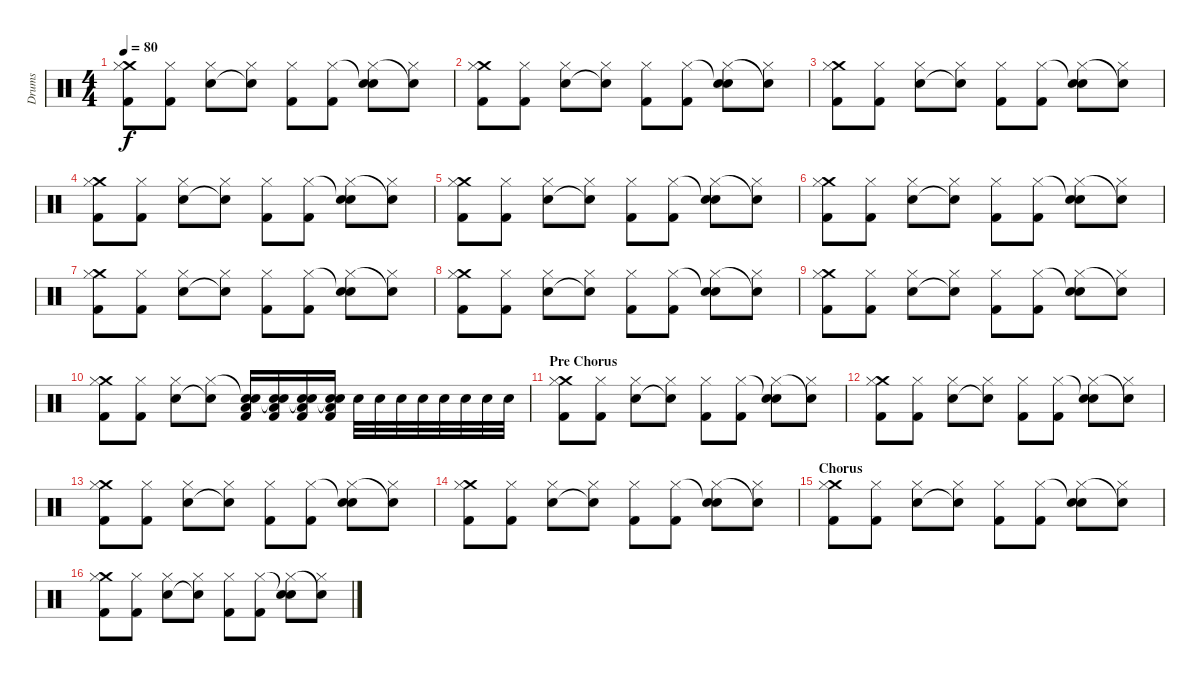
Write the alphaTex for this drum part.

\track ("Drums" "Drums") {instrument percussion}
\staff {score}
\articulation defaults
\ts (4 4)
\tempo 80
\clef neutral
\ks c
("Crash medium (hit)" "Hi-Hat (closed)" "Kick (hit) 2").8{dy f} ("Hi-Hat (closed)" "Kick (hit) 2").8 ("Hi-Hat (closed)" "Electric Snare (hit)").8 ("Hi-Hat (closed)" "Snare (hit)"{t}).8 ("Hi-Hat (closed)" "Kick (hit) 2").8 ("Hi-Hat (closed)" "Kick (hit) 2").8 ("Snare (hit)"{t} "Hi-Hat (closed)" "Electric Snare (hit)").8 ("Hi-Hat (closed)" "Snare (hit)"{t}).8 |
("Crash medium (hit)" "Hi-Hat (closed)" "Kick (hit) 2").8 ("Hi-Hat (closed)" "Kick (hit) 2").8 ("Hi-Hat (closed)" "Electric Snare (hit)").8 ("Hi-Hat (closed)" "Snare (hit)"{t}).8 ("Hi-Hat (closed)" "Kick (hit) 2").8 ("Hi-Hat (closed)" "Kick (hit) 2").8 ("Snare (hit)"{t} "Hi-Hat (closed)" "Electric Snare (hit)").8 ("Hi-Hat (closed)" "Snare (hit)"{t}).8 |
("Crash medium (hit)" "Hi-Hat (closed)" "Kick (hit) 2").8 ("Hi-Hat (closed)" "Kick (hit) 2").8 ("Hi-Hat (closed)" "Electric Snare (hit)").8 ("Hi-Hat (closed)" "Snare (hit)"{t}).8 ("Hi-Hat (closed)" "Kick (hit) 2").8 ("Hi-Hat (closed)" "Kick (hit) 2").8 ("Snare (hit)"{t} "Hi-Hat (closed)" "Electric Snare (hit)").8 ("Hi-Hat (closed)" "Snare (hit)"{t}).8 |
("Crash medium (hit)" "Hi-Hat (closed)" "Kick (hit) 2").8 ("Hi-Hat (closed)" "Kick (hit) 2").8 ("Hi-Hat (closed)" "Electric Snare (hit)").8 ("Hi-Hat (closed)" "Snare (hit)"{t}).8 ("Hi-Hat (closed)" "Kick (hit) 2").8 ("Hi-Hat (closed)" "Kick (hit) 2").8 ("Snare (hit)"{t} "Hi-Hat (closed)" "Electric Snare (hit)").8 ("Hi-Hat (closed)" "Snare (hit)"{t}).8 |
("Crash medium (hit)" "Hi-Hat (closed)" "Kick (hit) 2").8 ("Hi-Hat (closed)" "Kick (hit) 2").8 ("Hi-Hat (closed)" "Electric Snare (hit)").8 ("Hi-Hat (closed)" "Snare (hit)"{t}).8 ("Hi-Hat (closed)" "Kick (hit) 2").8 ("Hi-Hat (closed)" "Kick (hit) 2").8 ("Snare (hit)"{t} "Hi-Hat (closed)" "Electric Snare (hit)").8 ("Hi-Hat (closed)" "Snare (hit)"{t}).8 |
("Crash medium (hit)" "Hi-Hat (closed)" "Kick (hit) 2").8 ("Hi-Hat (closed)" "Kick (hit) 2").8 ("Hi-Hat (closed)" "Electric Snare (hit)").8 ("Hi-Hat (closed)" "Snare (hit)"{t}).8 ("Hi-Hat (closed)" "Kick (hit) 2").8 ("Hi-Hat (closed)" "Kick (hit) 2").8 ("Snare (hit)"{t} "Hi-Hat (closed)" "Electric Snare (hit)").8 ("Hi-Hat (closed)" "Snare (hit)"{t}).8 |
("Crash medium (hit)" "Hi-Hat (closed)" "Kick (hit) 2").8 ("Hi-Hat (closed)" "Kick (hit) 2").8 ("Hi-Hat (closed)" "Electric Snare (hit)").8 ("Hi-Hat (closed)" "Snare (hit)"{t}).8 ("Hi-Hat (closed)" "Kick (hit) 2").8 ("Hi-Hat (closed)" "Kick (hit) 2").8 ("Snare (hit)"{t} "Hi-Hat (closed)" "Electric Snare (hit)").8 ("Hi-Hat (closed)" "Snare (hit)"{t}).8 |
("Crash medium (hit)" "Hi-Hat (closed)" "Kick (hit) 2").8 ("Hi-Hat (closed)" "Kick (hit) 2").8 ("Hi-Hat (closed)" "Electric Snare (hit)").8 ("Hi-Hat (closed)" "Snare (hit)"{t}).8 ("Hi-Hat (closed)" "Kick (hit) 2").8 ("Hi-Hat (closed)" "Kick (hit) 2").8 ("Snare (hit)"{t} "Hi-Hat (closed)" "Electric Snare (hit)").8 ("Hi-Hat (closed)" "Snare (hit)"{t}).8 |
("Crash medium (hit)" "Hi-Hat (closed)" "Kick (hit) 2").8 ("Hi-Hat (closed)" "Kick (hit) 2").8 ("Hi-Hat (closed)" "Electric Snare (hit)").8 ("Hi-Hat (closed)" "Snare (hit)"{t}).8 ("Hi-Hat (closed)" "Kick (hit) 2").8 ("Hi-Hat (closed)" "Kick (hit) 2").8 ("Snare (hit)"{t} "Hi-Hat (closed)" "Electric Snare (hit)").8 ("Hi-Hat (closed)" "Snare (hit)"{t}).8 |
("Crash medium (hit)" "Hi-Hat (closed)" "Kick (hit) 2").8 ("Hi-Hat (closed)" "Kick (hit) 2").8 ("Hi-Hat (closed)" "Electric Snare (hit)").8 ("Hi-Hat (closed)" "Snare (hit)"{t}).8 ("Snare (hit)"{t} "Electric Snare (hit)" "Low Floor Tom (hit)" "Kick (hit) 2").16 ("Snare (hit)"{t} "Electric Snare (hit)" "Low Floor Tom (hit)" "Kick (hit) 2").16 ("Snare (hit)"{t} "Electric Snare (hit)" "Low Floor Tom (hit)" "Kick (hit) 2").16 ("Snare (hit)"{t} "Electric Snare (hit)" "Low Floor Tom (hit)" "Kick (hit) 2").16 "Electric Snare (hit)".32 "Electric Snare (hit)".32 "Electric Snare (hit)".32 "Electric Snare (hit)".32 "Electric Snare (hit)".32 "Electric Snare (hit)".32 "Electric Snare (hit)".32 "Electric Snare (hit)".32 |
\section ("" "Pre Chorus")
("Crash medium (hit)" "Hi-Hat (closed)" "Kick (hit) 2").8 ("Hi-Hat (closed)" "Kick (hit) 2").8 ("Hi-Hat (closed)" "Electric Snare (hit)").8 ("Hi-Hat (closed)" "Snare (hit)"{t}).8 ("Hi-Hat (closed)" "Kick (hit) 2").8 ("Hi-Hat (closed)" "Kick (hit) 2").8 ("Snare (hit)"{t} "Hi-Hat (closed)" "Electric Snare (hit)").8 ("Hi-Hat (closed)" "Snare (hit)"{t}).8 |
("Crash medium (hit)" "Hi-Hat (closed)" "Kick (hit) 2").8 ("Hi-Hat (closed)" "Kick (hit) 2").8 ("Hi-Hat (closed)" "Electric Snare (hit)").8 ("Hi-Hat (closed)" "Snare (hit)"{t}).8 ("Hi-Hat (closed)" "Kick (hit) 2").8 ("Hi-Hat (closed)" "Kick (hit) 2").8 ("Snare (hit)"{t} "Hi-Hat (closed)" "Electric Snare (hit)").8 ("Hi-Hat (closed)" "Snare (hit)"{t}).8 |
("Crash medium (hit)" "Hi-Hat (closed)" "Kick (hit) 2").8 ("Hi-Hat (closed)" "Kick (hit) 2").8 ("Hi-Hat (closed)" "Electric Snare (hit)").8 ("Hi-Hat (closed)" "Snare (hit)"{t}).8 ("Hi-Hat (closed)" "Kick (hit) 2").8 ("Hi-Hat (closed)" "Kick (hit) 2").8 ("Snare (hit)"{t} "Hi-Hat (closed)" "Electric Snare (hit)").8 ("Hi-Hat (closed)" "Snare (hit)"{t}).8 |
("Crash medium (hit)" "Hi-Hat (closed)" "Kick (hit) 2").8 ("Hi-Hat (closed)" "Kick (hit) 2").8 ("Hi-Hat (closed)" "Electric Snare (hit)").8 ("Hi-Hat (closed)" "Snare (hit)"{t}).8 ("Hi-Hat (closed)" "Kick (hit) 2").8 ("Hi-Hat (closed)" "Kick (hit) 2").8 ("Snare (hit)"{t} "Hi-Hat (closed)" "Electric Snare (hit)").8 ("Hi-Hat (closed)" "Snare (hit)"{t}).8 |
\section ("" "Chorus")
("Crash medium (hit)" "Hi-Hat (closed)" "Kick (hit) 2").8 ("Hi-Hat (closed)" "Kick (hit) 2").8 ("Hi-Hat (closed)" "Electric Snare (hit)").8 ("Hi-Hat (closed)" "Snare (hit)"{t}).8 ("Hi-Hat (closed)" "Kick (hit) 2").8 ("Hi-Hat (closed)" "Kick (hit) 2").8 ("Snare (hit)"{t} "Hi-Hat (closed)" "Electric Snare (hit)").8 ("Hi-Hat (closed)" "Snare (hit)"{t}).8 |
("Crash medium (hit)" "Hi-Hat (closed)" "Kick (hit) 2").8 ("Hi-Hat (closed)" "Kick (hit) 2").8 ("Hi-Hat (closed)" "Electric Snare (hit)").8 ("Hi-Hat (closed)" "Snare (hit)"{t}).8 ("Hi-Hat (closed)" "Kick (hit) 2").8 ("Hi-Hat (closed)" "Kick (hit) 2").8 ("Snare (hit)"{t} "Hi-Hat (closed)" "Electric Snare (hit)").8 ("Hi-Hat (closed)" "Snare (hit)"{t}).8
